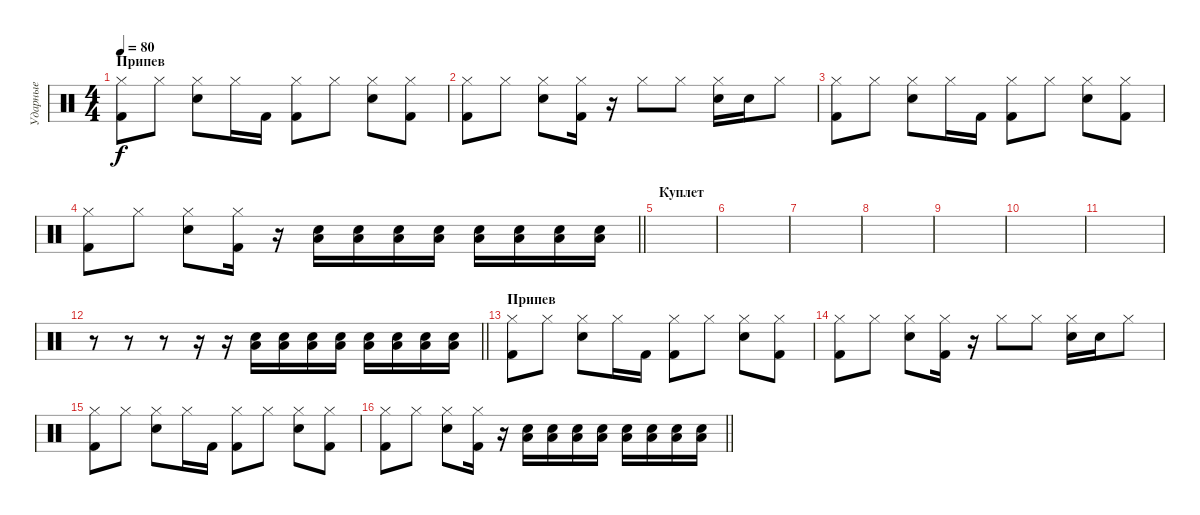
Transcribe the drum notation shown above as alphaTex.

\track ("Ударные" "Ударные") {instrument percussion}
\staff {score}
\articulation defaults
\ts (4 4)
\section ("" "Припев")
\tempo 80
\clef neutral
\ks c
("Hi-Hat (closed)" "Kick (hit) 2").8{dy f} "Hi-Hat (closed)".8 ("Electric Snare (hit)" "Hi-Hat (closed)").8 "Hi-Hat (closed)".16 "Kick (hit) 2".16 ("Kick (hit) 2" "Hi-Hat (closed)").8 "Hi-Hat (closed)".8 ("Electric Snare (hit)" "Hi-Hat (closed)").8 ("Kick (hit) 2" "Hi-Hat (closed)").8 |
("Hi-Hat (closed)" "Kick (hit) 2").8 "Hi-Hat (closed)".8 ("Electric Snare (hit)" "Hi-Hat (closed)").8 ("Hi-Hat (closed)" "Kick (hit) 2").16 r.16 "Hi-Hat (closed)".8 "Hi-Hat (closed)".8 ("Electric Snare (hit)" "Hi-Hat (closed)").16 "Electric Snare (hit)".16 "Hi-Hat (closed)".8 |
("Hi-Hat (closed)" "Kick (hit) 2").8 "Hi-Hat (closed)".8 ("Electric Snare (hit)" "Hi-Hat (closed)").8 "Hi-Hat (closed)".16 "Kick (hit) 2".16 ("Kick (hit) 2" "Hi-Hat (closed)").8 "Hi-Hat (closed)".8 ("Electric Snare (hit)" "Hi-Hat (closed)").8 ("Kick (hit) 2" "Hi-Hat (closed)").8 |
\barLineRight lightlight
("Hi-Hat (closed)" "Kick (hit) 2").8 "Hi-Hat (closed)".8 ("Electric Snare (hit)" "Hi-Hat (closed)").8 ("Hi-Hat (closed)" "Kick (hit) 2").16 r.16 ("Electric Snare (hit)" "Low Floor Tom (hit)").16 ("Electric Snare (hit)" "Low Floor Tom (hit)").16 ("Electric Snare (hit)" "Low Floor Tom (hit)").16 ("Electric Snare (hit)" "Low Floor Tom (hit)").16 ("Electric Snare (hit)" "Low Floor Tom (hit)").16 ("Electric Snare (hit)" "Low Floor Tom (hit)").16 ("Electric Snare (hit)" "Low Floor Tom (hit)").16 ("Electric Snare (hit)" "Low Floor Tom (hit)").16 |
\section ("" "Куплет")
|
|
|
|
|
|
|
\barLineRight lightlight
r.8 r.8 r.8 r.16 r.16 ("Electric Snare (hit)" "Low Floor Tom (hit)").16 ("Electric Snare (hit)" "Low Floor Tom (hit)").16 ("Electric Snare (hit)" "Low Floor Tom (hit)").16 ("Electric Snare (hit)" "Low Floor Tom (hit)").16 ("Electric Snare (hit)" "Low Floor Tom (hit)").16 ("Electric Snare (hit)" "Low Floor Tom (hit)").16 ("Electric Snare (hit)" "Low Floor Tom (hit)").16 ("Electric Snare (hit)" "Low Floor Tom (hit)").16 |
\section ("" "Припев")
("Hi-Hat (closed)" "Kick (hit) 2").8 "Hi-Hat (closed)".8 ("Electric Snare (hit)" "Hi-Hat (closed)").8 "Hi-Hat (closed)".16 "Kick (hit) 2".16 ("Kick (hit) 2" "Hi-Hat (closed)").8 "Hi-Hat (closed)".8 ("Electric Snare (hit)" "Hi-Hat (closed)").8 ("Kick (hit) 2" "Hi-Hat (closed)").8 |
("Hi-Hat (closed)" "Kick (hit) 2").8 "Hi-Hat (closed)".8 ("Electric Snare (hit)" "Hi-Hat (closed)").8 ("Hi-Hat (closed)" "Kick (hit) 2").16 r.16 "Hi-Hat (closed)".8 "Hi-Hat (closed)".8 ("Electric Snare (hit)" "Hi-Hat (closed)").16 "Electric Snare (hit)".16 "Hi-Hat (closed)".8 |
("Hi-Hat (closed)" "Kick (hit) 2").8 "Hi-Hat (closed)".8 ("Electric Snare (hit)" "Hi-Hat (closed)").8 "Hi-Hat (closed)".16 "Kick (hit) 2".16 ("Kick (hit) 2" "Hi-Hat (closed)").8 "Hi-Hat (closed)".8 ("Electric Snare (hit)" "Hi-Hat (closed)").8 ("Kick (hit) 2" "Hi-Hat (closed)").8 |
\barLineRight lightlight
("Hi-Hat (closed)" "Kick (hit) 2").8 "Hi-Hat (closed)".8 ("Electric Snare (hit)" "Hi-Hat (closed)").8 ("Hi-Hat (closed)" "Kick (hit) 2").16 r.16 ("Electric Snare (hit)" "Low Floor Tom (hit)").16 ("Electric Snare (hit)" "Low Floor Tom (hit)").16 ("Electric Snare (hit)" "Low Floor Tom (hit)").16 ("Electric Snare (hit)" "Low Floor Tom (hit)").16 ("Electric Snare (hit)" "Low Floor Tom (hit)").16 ("Electric Snare (hit)" "Low Floor Tom (hit)").16 ("Electric Snare (hit)" "Low Floor Tom (hit)").16 ("Electric Snare (hit)" "Low Floor Tom (hit)").16
